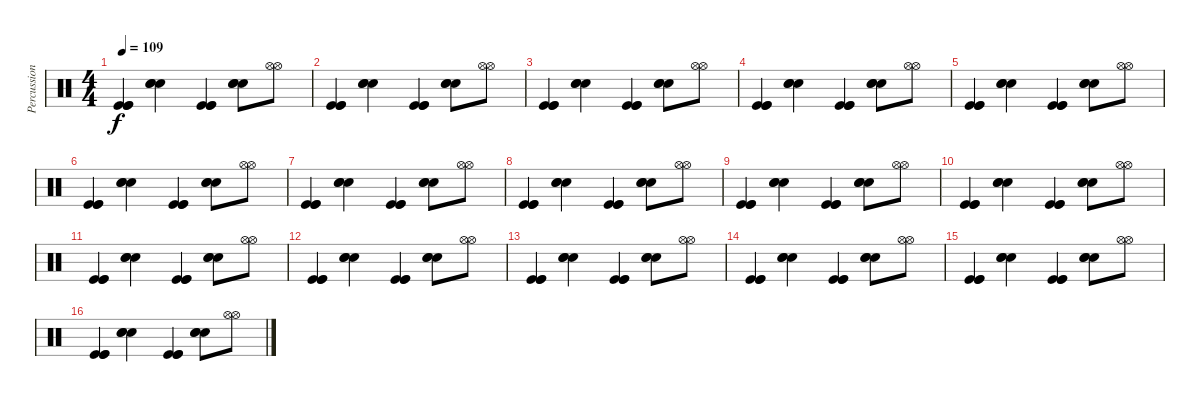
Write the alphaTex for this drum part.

\track ("Percussions" "Percussion") {instrument percussion}
\staff {score}
\articulation defaults
\ts (4 4)
\tempo 109
\clef neutral
\ks c
("Kick (hit)" "Kick (hit)" "Kick (hit)").4{dy f} ("Snare (hit) 2" "Snare (hit) 2" "Snare (hit) 2").4 ("Kick (hit)" "Kick (hit)" "Kick (hit)").4 ("Snare (hit) 2" "Snare (hit) 2" "Snare (hit) 2").8 ("Hi-Hat (open)" "Hi-Hat (open)").8 |
("Kick (hit)" "Kick (hit)" "Kick (hit)").4 ("Snare (hit) 2" "Snare (hit) 2" "Snare (hit) 2").4 ("Kick (hit)" "Kick (hit)" "Kick (hit)").4 ("Snare (hit) 2" "Snare (hit) 2" "Snare (hit) 2").8 ("Hi-Hat (open)" "Hi-Hat (open)").8 |
("Kick (hit)" "Kick (hit)" "Kick (hit)").4 ("Snare (hit) 2" "Snare (hit) 2" "Snare (hit) 2").4 ("Kick (hit)" "Kick (hit)" "Kick (hit)").4 ("Snare (hit) 2" "Snare (hit) 2" "Snare (hit) 2").8 ("Hi-Hat (open)" "Hi-Hat (open)").8 |
("Kick (hit)" "Kick (hit)" "Kick (hit)").4 ("Snare (hit) 2" "Snare (hit) 2" "Snare (hit) 2").4 ("Kick (hit)" "Kick (hit)" "Kick (hit)").4 ("Snare (hit) 2" "Snare (hit) 2" "Snare (hit) 2").8 ("Hi-Hat (open)" "Hi-Hat (open)").8 |
("Kick (hit)" "Kick (hit)" "Kick (hit)").4 ("Snare (hit) 2" "Snare (hit) 2" "Snare (hit) 2").4 ("Kick (hit)" "Kick (hit)" "Kick (hit)").4 ("Snare (hit) 2" "Snare (hit) 2" "Snare (hit) 2").8 ("Hi-Hat (open)" "Hi-Hat (open)").8 |
("Kick (hit)" "Kick (hit)" "Kick (hit)").4 ("Snare (hit) 2" "Snare (hit) 2" "Snare (hit) 2").4 ("Kick (hit)" "Kick (hit)" "Kick (hit)").4 ("Snare (hit) 2" "Snare (hit) 2" "Snare (hit) 2").8 ("Hi-Hat (open)" "Hi-Hat (open)").8 |
("Kick (hit)" "Kick (hit)" "Kick (hit)").4 ("Snare (hit) 2" "Snare (hit) 2" "Snare (hit) 2").4 ("Kick (hit)" "Kick (hit)" "Kick (hit)").4 ("Snare (hit) 2" "Snare (hit) 2" "Snare (hit) 2").8 ("Hi-Hat (open)" "Hi-Hat (open)").8 |
("Kick (hit)" "Kick (hit)" "Kick (hit)").4 ("Snare (hit) 2" "Snare (hit) 2" "Snare (hit) 2").4 ("Kick (hit)" "Kick (hit)" "Kick (hit)").4 ("Snare (hit) 2" "Snare (hit) 2" "Snare (hit) 2").8 ("Hi-Hat (open)" "Hi-Hat (open)").8 |
("Kick (hit)" "Kick (hit)" "Kick (hit)").4 ("Snare (hit) 2" "Snare (hit) 2" "Snare (hit) 2").4 ("Kick (hit)" "Kick (hit)" "Kick (hit)").4 ("Snare (hit) 2" "Snare (hit) 2" "Snare (hit) 2").8 ("Hi-Hat (open)" "Hi-Hat (open)").8 |
("Kick (hit)" "Kick (hit)" "Kick (hit)").4 ("Snare (hit) 2" "Snare (hit) 2" "Snare (hit) 2").4 ("Kick (hit)" "Kick (hit)" "Kick (hit)").4 ("Snare (hit) 2" "Snare (hit) 2" "Snare (hit) 2").8 ("Hi-Hat (open)" "Hi-Hat (open)").8 |
("Kick (hit)" "Kick (hit)" "Kick (hit)").4 ("Snare (hit) 2" "Snare (hit) 2" "Snare (hit) 2").4 ("Kick (hit)" "Kick (hit)" "Kick (hit)").4 ("Snare (hit) 2" "Snare (hit) 2" "Snare (hit) 2").8 ("Hi-Hat (open)" "Hi-Hat (open)").8 |
("Kick (hit)" "Kick (hit)" "Kick (hit)").4 ("Snare (hit) 2" "Snare (hit) 2" "Snare (hit) 2").4 ("Kick (hit)" "Kick (hit)" "Kick (hit)").4 ("Snare (hit) 2" "Snare (hit) 2" "Snare (hit) 2").8 ("Hi-Hat (open)" "Hi-Hat (open)").8 |
("Kick (hit)" "Kick (hit)" "Kick (hit)").4 ("Snare (hit) 2" "Snare (hit) 2" "Snare (hit) 2").4 ("Kick (hit)" "Kick (hit)" "Kick (hit)").4 ("Snare (hit) 2" "Snare (hit) 2" "Snare (hit) 2").8 ("Hi-Hat (open)" "Hi-Hat (open)").8 |
("Kick (hit)" "Kick (hit)" "Kick (hit)").4 ("Snare (hit) 2" "Snare (hit) 2" "Snare (hit) 2").4 ("Kick (hit)" "Kick (hit)" "Kick (hit)").4 ("Snare (hit) 2" "Snare (hit) 2" "Snare (hit) 2").8 ("Hi-Hat (open)" "Hi-Hat (open)").8 |
("Kick (hit)" "Kick (hit)" "Kick (hit)").4 ("Snare (hit) 2" "Snare (hit) 2" "Snare (hit) 2").4 ("Kick (hit)" "Kick (hit)" "Kick (hit)").4 ("Snare (hit) 2" "Snare (hit) 2" "Snare (hit) 2").8 ("Hi-Hat (open)" "Hi-Hat (open)").8 |
("Kick (hit)" "Kick (hit)" "Kick (hit)").4 ("Snare (hit) 2" "Snare (hit) 2" "Snare (hit) 2").4 ("Kick (hit)" "Kick (hit)" "Kick (hit)").4 ("Snare (hit) 2" "Snare (hit) 2" "Snare (hit) 2").8 ("Hi-Hat (open)" "Hi-Hat (open)").8
